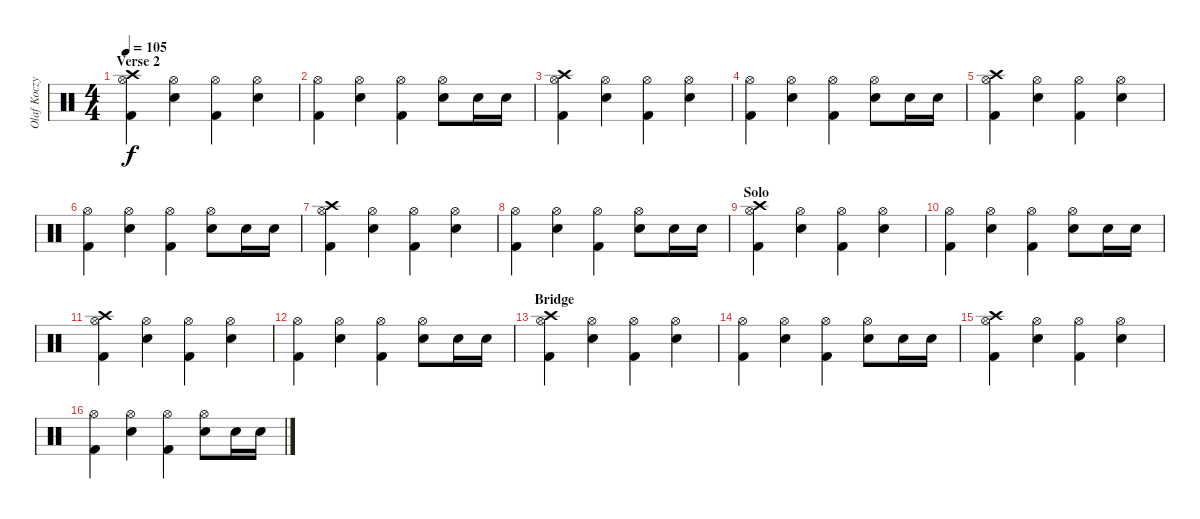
\track ("Olaf Koczy (drums)" "Olaf Koczy") {instrument percussion}
\staff {score}
\articulation defaults
\ts (4 4)
\section ("" "Verse 2")
\tempo 105
\clef neutral
\ks c
("Crash high (hit)" "Hi-Hat (open)" "Kick (hit) 2").4{dy f} ("Hi-Hat (open)" "Snare (hit) 2").4 ("Hi-Hat (open)" "Kick (hit) 2").4 ("Hi-Hat (open)" "Snare (hit) 2").4 |
("Hi-Hat (open)" "Kick (hit) 2").4 ("Hi-Hat (open)" "Snare (hit) 2").4 ("Hi-Hat (open)" "Kick (hit) 2").4 ("Hi-Hat (open)" "Snare (hit) 2").8 "Snare (hit) 2".16 "Snare (hit) 2".16 |
("Crash high (hit)" "Hi-Hat (open)" "Kick (hit) 2").4 ("Hi-Hat (open)" "Snare (hit) 2").4 ("Hi-Hat (open)" "Kick (hit) 2").4 ("Hi-Hat (open)" "Snare (hit) 2").4 |
("Hi-Hat (open)" "Kick (hit) 2").4 ("Hi-Hat (open)" "Snare (hit) 2").4 ("Hi-Hat (open)" "Kick (hit) 2").4 ("Hi-Hat (open)" "Snare (hit) 2").8 "Snare (hit) 2".16 "Snare (hit) 2".16 |
("Crash high (hit)" "Hi-Hat (open)" "Kick (hit) 2").4 ("Hi-Hat (open)" "Snare (hit) 2").4 ("Hi-Hat (open)" "Kick (hit) 2").4 ("Hi-Hat (open)" "Snare (hit) 2").4 |
("Hi-Hat (open)" "Kick (hit) 2").4 ("Hi-Hat (open)" "Snare (hit) 2").4 ("Hi-Hat (open)" "Kick (hit) 2").4 ("Hi-Hat (open)" "Snare (hit) 2").8 "Snare (hit) 2".16 "Snare (hit) 2".16 |
("Crash high (hit)" "Hi-Hat (open)" "Kick (hit) 2").4 ("Hi-Hat (open)" "Snare (hit) 2").4 ("Hi-Hat (open)" "Kick (hit) 2").4 ("Hi-Hat (open)" "Snare (hit) 2").4 |
("Hi-Hat (open)" "Kick (hit) 2").4 ("Hi-Hat (open)" "Snare (hit) 2").4 ("Hi-Hat (open)" "Kick (hit) 2").4 ("Hi-Hat (open)" "Snare (hit) 2").8 "Snare (hit) 2".16 "Snare (hit) 2".16 |
\section ("" "Solo")
("Crash high (hit)" "Hi-Hat (open)" "Kick (hit) 2").4 ("Hi-Hat (open)" "Snare (hit) 2").4 ("Hi-Hat (open)" "Kick (hit) 2").4 ("Hi-Hat (open)" "Snare (hit) 2").4 |
("Hi-Hat (open)" "Kick (hit) 2").4 ("Hi-Hat (open)" "Snare (hit) 2").4 ("Hi-Hat (open)" "Kick (hit) 2").4 ("Hi-Hat (open)" "Snare (hit) 2").8 "Snare (hit) 2".16 "Snare (hit) 2".16 |
("Crash high (hit)" "Hi-Hat (open)" "Kick (hit) 2").4 ("Hi-Hat (open)" "Snare (hit) 2").4 ("Hi-Hat (open)" "Kick (hit) 2").4 ("Hi-Hat (open)" "Snare (hit) 2").4 |
("Hi-Hat (open)" "Kick (hit) 2").4 ("Hi-Hat (open)" "Snare (hit) 2").4 ("Hi-Hat (open)" "Kick (hit) 2").4 ("Hi-Hat (open)" "Snare (hit) 2").8 "Snare (hit) 2".16 "Snare (hit) 2".16 |
\section ("" "Bridge")
("Crash high (hit)" "Hi-Hat (open)" "Kick (hit) 2").4 ("Hi-Hat (open)" "Snare (hit) 2").4 ("Hi-Hat (open)" "Kick (hit) 2").4 ("Hi-Hat (open)" "Snare (hit) 2").4 |
("Hi-Hat (open)" "Kick (hit) 2").4 ("Hi-Hat (open)" "Snare (hit) 2").4 ("Hi-Hat (open)" "Kick (hit) 2").4 ("Hi-Hat (open)" "Snare (hit) 2").8 "Snare (hit) 2".16 "Snare (hit) 2".16 |
("Crash high (hit)" "Hi-Hat (open)" "Kick (hit) 2").4 ("Hi-Hat (open)" "Snare (hit) 2").4 ("Hi-Hat (open)" "Kick (hit) 2").4 ("Hi-Hat (open)" "Snare (hit) 2").4 |
("Hi-Hat (open)" "Kick (hit) 2").4 ("Hi-Hat (open)" "Snare (hit) 2").4 ("Hi-Hat (open)" "Kick (hit) 2").4 ("Hi-Hat (open)" "Snare (hit) 2").8 "Snare (hit) 2".16 "Snare (hit) 2".16
